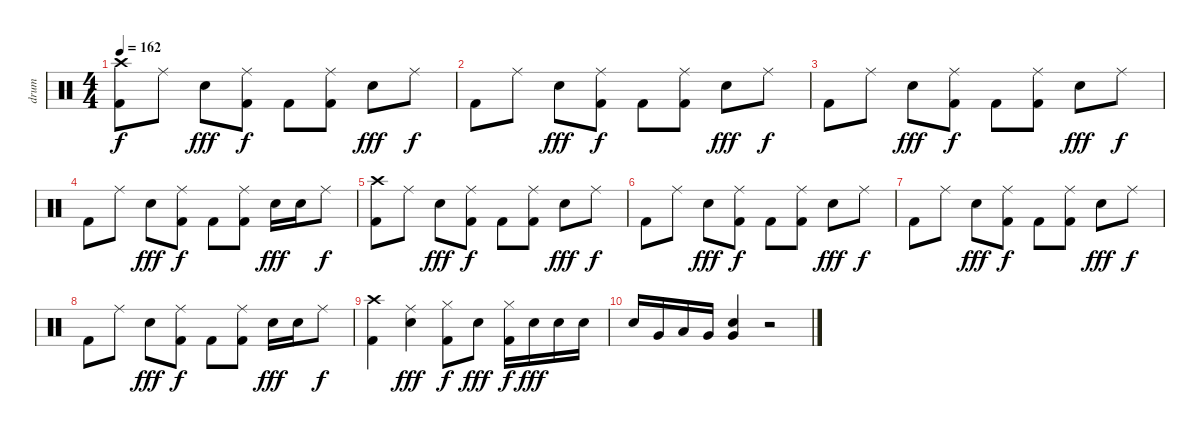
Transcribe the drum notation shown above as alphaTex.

\track ("drum" "drum") {instrument percussion}
\staff {score}
\articulation defaults
\ts (4 4)
\tempo 162
\clef neutral
\ks c
("Crash high (hit)" "Kick (hit) 2").8{dy f} "Ride (middle)".8 "Electric Snare (hit)".8{dy fff} ("Ride (middle)" "Kick (hit) 2").8{dy f} "Kick (hit) 2".8 ("Ride (middle)" "Kick (hit) 2").8 "Electric Snare (hit)".8{dy fff} "Ride (middle)".8{dy f} |
"Kick (hit) 2".8 "Ride (middle)".8 "Electric Snare (hit)".8{dy fff} ("Ride (middle)" "Kick (hit) 2").8{dy f} "Kick (hit) 2".8 ("Ride (middle)" "Kick (hit) 2").8 "Electric Snare (hit)".8{dy fff} "Ride (middle)".8{dy f} |
"Kick (hit) 2".8 "Ride (middle)".8 "Electric Snare (hit)".8{dy fff} ("Ride (middle)" "Kick (hit) 2").8{dy f} "Kick (hit) 2".8 ("Ride (middle)" "Kick (hit) 2").8 "Electric Snare (hit)".8{dy fff} "Ride (middle)".8{dy f} |
"Kick (hit) 2".8 "Ride (middle)".8 "Electric Snare (hit)".8{dy fff} ("Ride (middle)" "Kick (hit) 2").8{dy f} "Kick (hit) 2".8 ("Ride (middle)" "Kick (hit) 2").8 "Electric Snare (hit)".16{dy fff} "Electric Snare (hit)".16 "Ride (middle)".8{dy f} |
("Crash high (hit)" "Kick (hit) 2").8 "Ride (middle)".8 "Electric Snare (hit)".8{dy fff} ("Ride (middle)" "Kick (hit) 2").8{dy f} "Kick (hit) 2".8 ("Ride (middle)" "Kick (hit) 2").8 "Electric Snare (hit)".8{dy fff} "Ride (middle)".8{dy f} |
"Kick (hit) 2".8 "Ride (middle)".8 "Electric Snare (hit)".8{dy fff} ("Ride (middle)" "Kick (hit) 2").8{dy f} "Kick (hit) 2".8 ("Ride (middle)" "Kick (hit) 2").8 "Electric Snare (hit)".8{dy fff} "Ride (middle)".8{dy f} |
"Kick (hit) 2".8 "Ride (middle)".8 "Electric Snare (hit)".8{dy fff} ("Ride (middle)" "Kick (hit) 2").8{dy f} "Kick (hit) 2".8 ("Ride (middle)" "Kick (hit) 2").8 "Electric Snare (hit)".8{dy fff} "Ride (middle)".8{dy f} |
"Kick (hit) 2".8 "Ride (middle)".8 "Electric Snare (hit)".8{dy fff} ("Ride (middle)" "Kick (hit) 2").8{dy f} "Kick (hit) 2".8 ("Ride (middle)" "Kick (hit) 2").8 "Electric Snare (hit)".16{dy fff} "Electric Snare (hit)".16 "Ride (middle)".8{dy f} |
("Crash high (hit)" "Kick (hit) 2").4 ("Ride (middle)" "Electric Snare (hit)").4{dy fff} ("Hi-Hat (closed)" "Kick (hit) 2").8{dy f} "Electric Snare (hit)".8{dy fff} ("Hi-Hat (closed)" "Kick (hit) 2").16{dy f} "Electric Snare (hit)".16{dy fff} "Electric Snare (hit)".16 "Electric Snare (hit)".16 |
"Electric Snare (hit)".16 "Very Low Tom (hit)".16 "Low Tom (hit)".16 "Very Low Tom (hit)".16 ("Electric Snare (hit)" "Very Low Tom (hit)").4 r.2
